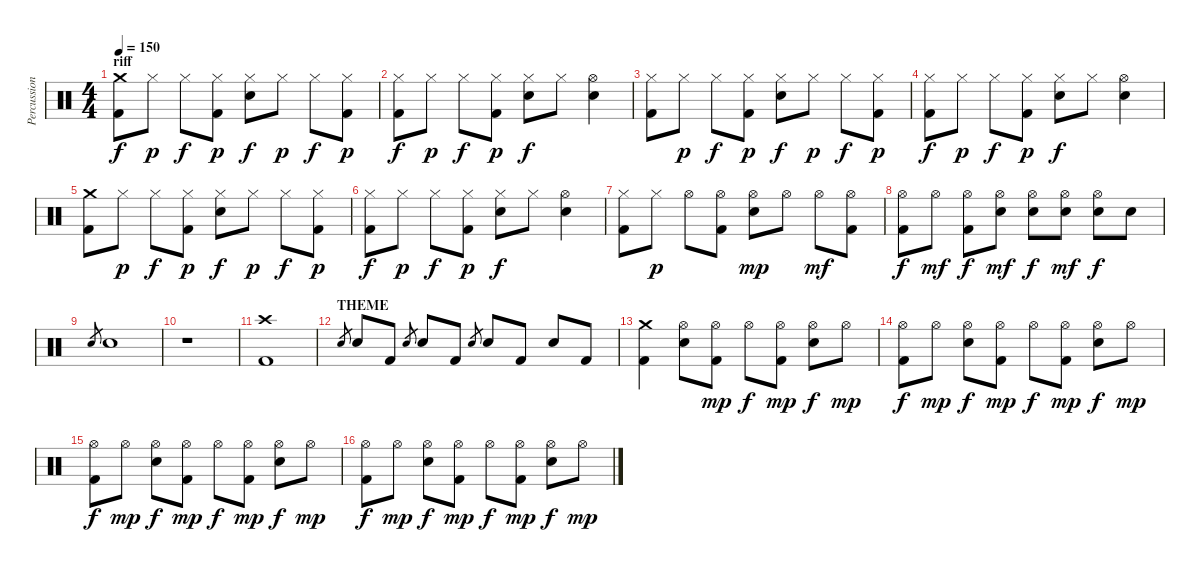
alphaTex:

\track ("Percussions" "Percussion") {instrument percussion}
\staff {score}
\articulation defaults
\ts (4 4)
\section ("" "riff")
\tempo 150
\clef neutral
\ks c
("Crash medium (hit)" "Kick (hit) 2").8{dy f} "Hi-Hat (closed)".8{dy p} "Hi-Hat (closed)".8{dy f} ("Hi-Hat (closed)" "Kick (hit) 2").8{dy p} ("Hi-Hat (closed)" "Electric Snare (hit)").8{dy f} "Hi-Hat (closed)".8{dy p} "Hi-Hat (closed)".8{dy f} ("Hi-Hat (closed)" "Kick (hit) 2").8{dy p} |
("Hi-Hat (closed)" "Kick (hit) 2").8{dy f} "Hi-Hat (closed)".8{dy p} "Hi-Hat (closed)".8{dy f} ("Hi-Hat (closed)" "Kick (hit) 2").8{dy p} ("Hi-Hat (closed)" "Electric Snare (hit)").8{dy f} "Hi-Hat (closed)".8 ("Hi-Hat (open)" "Electric Snare (hit)").4 |
("Hi-Hat (closed)" "Kick (hit) 2").8 "Hi-Hat (closed)".8{dy p} "Hi-Hat (closed)".8{dy f} ("Hi-Hat (closed)" "Kick (hit) 2").8{dy p} ("Hi-Hat (closed)" "Electric Snare (hit)").8{dy f} "Hi-Hat (closed)".8{dy p} "Hi-Hat (closed)".8{dy f} ("Hi-Hat (closed)" "Kick (hit) 2").8{dy p} |
("Hi-Hat (closed)" "Kick (hit) 2").8{dy f} "Hi-Hat (closed)".8{dy p} "Hi-Hat (closed)".8{dy f} ("Hi-Hat (closed)" "Kick (hit) 2").8{dy p} ("Hi-Hat (closed)" "Electric Snare (hit)").8{dy f} "Hi-Hat (closed)".8 ("Hi-Hat (open)" "Electric Snare (hit)").4 |
("Crash medium (hit)" "Kick (hit) 2").8 "Hi-Hat (closed)".8{dy p} "Hi-Hat (closed)".8{dy f} ("Hi-Hat (closed)" "Kick (hit) 2").8{dy p} ("Hi-Hat (closed)" "Electric Snare (hit)").8{dy f} "Hi-Hat (closed)".8{dy p} "Hi-Hat (closed)".8{dy f} ("Hi-Hat (closed)" "Kick (hit) 2").8{dy p} |
("Hi-Hat (closed)" "Kick (hit) 2").8{dy f} "Hi-Hat (closed)".8{dy p} "Hi-Hat (closed)".8{dy f} ("Hi-Hat (closed)" "Kick (hit) 2").8{dy p} ("Hi-Hat (closed)" "Electric Snare (hit)").8{dy f} "Hi-Hat (closed)".8 ("Hi-Hat (open)" "Electric Snare (hit)").4 |
("Hi-Hat (closed)" "Kick (hit) 2").8 "Hi-Hat (closed)".8{dy p} "Hi-Hat (open)".8 ("Hi-Hat (open)" "Kick (hit) 2").8 ("Hi-Hat (open)" "Electric Snare (hit)").8{dy mp} "Hi-Hat (open)".8 "Hi-Hat (open)".8{dy mf} ("Hi-Hat (open)" "Kick (hit) 2").8 |
("Hi-Hat (open)" "Kick (hit) 2").8{dy f} "Hi-Hat (open)".8{dy mf} ("Hi-Hat (open)" "Kick (hit) 2").8{dy f} ("Hi-Hat (open)" "Electric Snare (hit)").8{dy mf} ("Hi-Hat (open)" "Electric Snare (hit)").8{dy f} ("Hi-Hat (open)" "Electric Snare (hit)").8{dy mf} ("Hi-Hat (open)" "Electric Snare (hit)").8{dy f} "Electric Snare (hit)".8 |
\section ("" "")
"Electric Snare (hit)".8{gr} "Electric Snare (hit)".1 |
r.1 |
("Crash high (hit)" "Kick (hit) 2").1 |
\section ("" "THEME")
"Electric Snare (hit)".8{gr} "Electric Snare (hit)".8 "Kick (hit) 2".8 "Electric Snare (hit)".8{gr} "Electric Snare (hit)".8 "Kick (hit) 2".8 "Electric Snare (hit)".8{gr} "Electric Snare (hit)".8 "Kick (hit) 2".8 "Electric Snare (hit)".8 "Kick (hit) 2".8 |
("Crash medium (hit)" "Kick (hit) 2").4 ("Hi-Hat (open)" "Electric Snare (hit)").8 ("Hi-Hat (open)" "Kick (hit) 2").8{dy mp} "Hi-Hat (open)".8{dy f} ("Hi-Hat (open)" "Kick (hit) 2").8{dy mp} ("Hi-Hat (open)" "Electric Snare (hit)").8{dy f} "Hi-Hat (open)".8{dy mp} |
("Hi-Hat (open)" "Kick (hit) 2").8{dy f} "Hi-Hat (open)".8{dy mp} ("Hi-Hat (open)" "Electric Snare (hit)").8{dy f} ("Hi-Hat (open)" "Kick (hit) 2").8{dy mp} "Hi-Hat (open)".8{dy f} ("Hi-Hat (open)" "Kick (hit) 2").8{dy mp} ("Hi-Hat (open)" "Electric Snare (hit)").8{dy f} "Hi-Hat (open)".8{dy mp} |
("Hi-Hat (open)" "Kick (hit) 2").8{dy f} "Hi-Hat (open)".8{dy mp} ("Hi-Hat (open)" "Electric Snare (hit)").8{dy f} ("Hi-Hat (open)" "Kick (hit) 2").8{dy mp} "Hi-Hat (open)".8{dy f} ("Hi-Hat (open)" "Kick (hit) 2").8{dy mp} ("Hi-Hat (open)" "Electric Snare (hit)").8{dy f} "Hi-Hat (open)".8{dy mp} |
("Hi-Hat (open)" "Kick (hit) 2").8{dy f} "Hi-Hat (open)".8{dy mp} ("Hi-Hat (open)" "Electric Snare (hit)").8{dy f} ("Hi-Hat (open)" "Kick (hit) 2").8{dy mp} "Hi-Hat (open)".8{dy f} ("Hi-Hat (open)" "Kick (hit) 2").8{dy mp} ("Hi-Hat (open)" "Electric Snare (hit)").8{dy f} "Hi-Hat (open)".8{dy mp}
